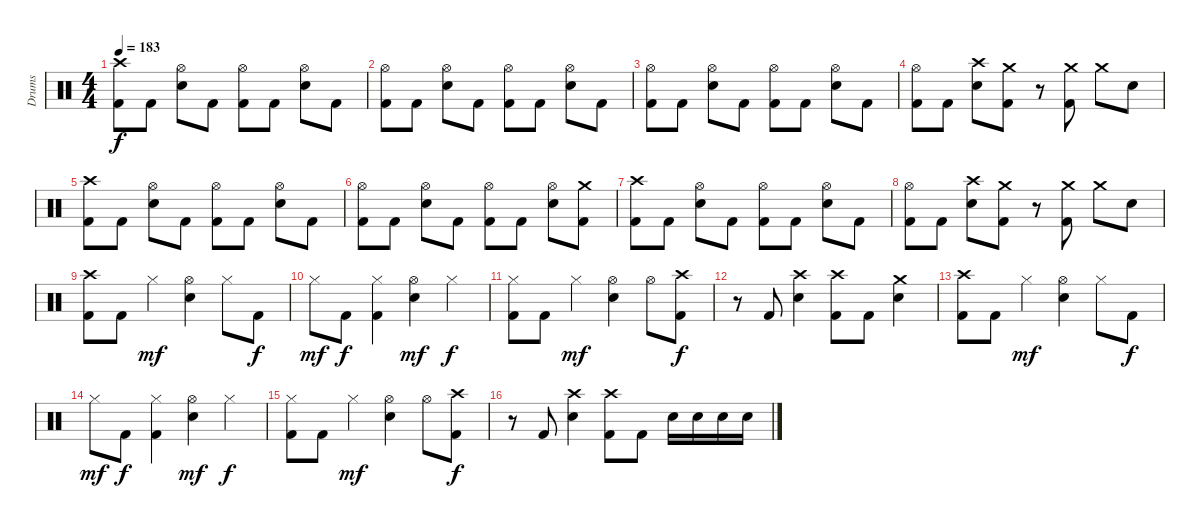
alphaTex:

\track ("Drums" "Drums") {instrument percussion}
\staff {score}
\articulation defaults
\ts (4 4)
\tempo 183
\clef neutral
\ks c
("Crash high (hit)" "Kick (hit) 2").8{dy f} "Kick (hit) 2".8 ("Hi-Hat (open)" "Snare (hit) 2").8 "Kick (hit) 2".8 ("Hi-Hat (open)" "Kick (hit) 2").8 "Kick (hit) 2".8 ("Hi-Hat (open)" "Snare (hit) 2").8 "Kick (hit) 2".8 |
("Hi-Hat (open)" "Kick (hit) 2").8 "Kick (hit) 2".8 ("Hi-Hat (open)" "Snare (hit) 2").8 "Kick (hit) 2".8 ("Hi-Hat (open)" "Kick (hit) 2").8 "Kick (hit) 2".8 ("Hi-Hat (open)" "Snare (hit) 2").8 "Kick (hit) 2".8 |
("Hi-Hat (open)" "Kick (hit) 2").8 "Kick (hit) 2".8 ("Hi-Hat (open)" "Snare (hit) 2").8 "Kick (hit) 2".8 ("Hi-Hat (open)" "Kick (hit) 2").8 "Kick (hit) 2".8 ("Hi-Hat (open)" "Snare (hit) 2").8 "Kick (hit) 2".8 |
("Hi-Hat (open)" "Kick (hit) 2").8 "Kick (hit) 2".8 ("Crash high (hit)" "Snare (hit) 2").8 ("Crash medium (hit)" "Kick (hit) 2").8 r.8 ("Crash medium (hit)" "Kick (hit) 2").8 "Crash medium (hit)".8 "Snare (hit) 2".8 |
("Crash high (hit)" "Kick (hit) 2").8 "Kick (hit) 2".8 ("Hi-Hat (open)" "Snare (hit) 2").8 "Kick (hit) 2".8 ("Hi-Hat (open)" "Kick (hit) 2").8 "Kick (hit) 2".8 ("Hi-Hat (open)" "Snare (hit) 2").8 "Kick (hit) 2".8 |
("Hi-Hat (open)" "Kick (hit) 2").8 "Kick (hit) 2".8 ("Hi-Hat (open)" "Snare (hit) 2").8 "Kick (hit) 2".8 ("Hi-Hat (open)" "Kick (hit) 2").8 "Kick (hit) 2".8 ("Hi-Hat (open)" "Snare (hit) 2").8 ("Crash medium (hit)" "Kick (hit) 2").8 |
("Crash high (hit)" "Kick (hit) 2").8 "Kick (hit) 2".8 ("Hi-Hat (open)" "Snare (hit) 2").8 "Kick (hit) 2".8 ("Hi-Hat (open)" "Kick (hit) 2").8 "Kick (hit) 2".8 ("Hi-Hat (open)" "Snare (hit) 2").8 "Kick (hit) 2".8 |
("Hi-Hat (open)" "Kick (hit) 2").8 "Kick (hit) 2".8 ("Crash high (hit)" "Snare (hit) 2").8 ("Crash medium (hit)" "Kick (hit) 2").8 r.8 ("Crash medium (hit)" "Kick (hit) 2").8 "Crash medium (hit)".8 "Snare (hit) 2".8 |
("Crash high (hit)" "Kick (hit) 2").8 "Kick (hit) 2".8 "Hi-Hat (closed)".4{dy mf} ("Hi-Hat (open)" "Snare (hit) 2").4 "Hi-Hat (closed)".8 "Kick (hit) 2".8{dy f} |
"Hi-Hat (closed)".8{dy mf} "Kick (hit) 2".8{dy f} ("Hi-Hat (closed)" "Kick (hit) 2").4 ("Hi-Hat (open)" "Snare (hit) 2").4{dy mf} "Hi-Hat (closed)".4{dy f} |
("Hi-Hat (closed)" "Kick (hit) 2").8 "Kick (hit) 2".8 "Hi-Hat (closed)".4{dy mf} ("Hi-Hat (open)" "Snare (hit) 2").4 "Hi-Hat (open)".8 ("Crash high (hit)" "Kick (hit) 2").8{dy f} |
r.8 "Kick (hit) 2".8 ("Crash high (hit)" "Snare (hit) 2").4 ("Crash high (hit)" "Kick (hit) 2").8 "Kick (hit) 2".8 ("Crash medium (hit)" "Snare (hit) 2").4 |
("Crash high (hit)" "Kick (hit) 2").8 "Kick (hit) 2".8 "Hi-Hat (closed)".4{dy mf} ("Hi-Hat (open)" "Snare (hit) 2").4 "Hi-Hat (closed)".8 "Kick (hit) 2".8{dy f} |
"Hi-Hat (closed)".8{dy mf} "Kick (hit) 2".8{dy f} ("Hi-Hat (closed)" "Kick (hit) 2").4 ("Hi-Hat (open)" "Snare (hit) 2").4{dy mf} "Hi-Hat (closed)".4{dy f} |
("Hi-Hat (closed)" "Kick (hit) 2").8 "Kick (hit) 2".8 "Hi-Hat (closed)".4{dy mf} ("Hi-Hat (open)" "Snare (hit) 2").4 "Hi-Hat (open)".8 ("Crash high (hit)" "Kick (hit) 2").8{dy f} |
r.8 "Kick (hit) 2".8 ("Crash high (hit)" "Snare (hit) 2").4 ("Crash high (hit)" "Kick (hit) 2").8 "Kick (hit) 2".8 "Snare (hit) 2".16 "Snare (hit) 2".16 "Snare (hit) 2".16 "Snare (hit) 2".16
